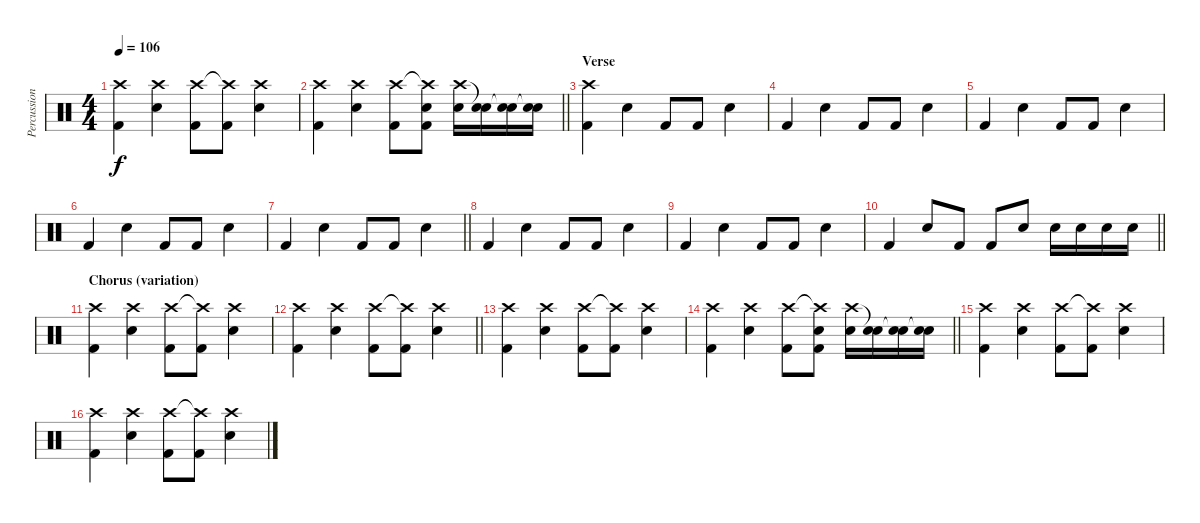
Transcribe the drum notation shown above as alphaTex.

\track ("Percussion" "Percussion") {instrument percussion}
\staff {score}
\articulation defaults
\ts (4 4)
\tempo 106
\clef neutral
\ks c
("Crash high (hit)" "Kick (hit) 2").4{dy f} ("Crash high (hit)" "Electric Snare (hit)").4 ("Crash high (hit)" "Kick (hit) 2").8 ("Crash high (hit)"{t} "Kick (hit) 2").8 ("Crash high (hit)" "Electric Snare (hit)").4 |
\barLineRight lightlight
("Crash high (hit)" "Kick (hit) 2").4 ("Crash high (hit)" "Electric Snare (hit)").4 ("Crash high (hit)" "Kick (hit) 2").8 ("Crash high (hit)"{t} "Electric Snare (hit)" "Kick (hit) 2").8 ("Crash high (hit)" "Electric Snare (hit)").16 ("Snare (hit)"{t} "Electric Snare (hit)").16 ("Snare (hit)"{t} "Electric Snare (hit)").16 ("Snare (hit)"{t} "Electric Snare (hit)").16 |
\section ("" "Verse")
("Crash high (hit)" "Kick (hit) 2").4 "Electric Snare (hit)".4 "Kick (hit) 2".8 "Kick (hit) 2".8 "Electric Snare (hit)".4 |
"Kick (hit) 2".4 "Electric Snare (hit)".4 "Kick (hit) 2".8 "Kick (hit) 2".8 "Electric Snare (hit)".4 |
"Kick (hit) 2".4 "Electric Snare (hit)".4 "Kick (hit) 2".8 "Kick (hit) 2".8 "Electric Snare (hit)".4 |
"Kick (hit) 2".4 "Electric Snare (hit)".4 "Kick (hit) 2".8 "Kick (hit) 2".8 "Electric Snare (hit)".4 |
\barLineRight lightlight "Kick (hit) 2".4 "Electric Snare (hit)".4 "Kick (hit) 2".8 "Kick (hit) 2".8 "Electric Snare (hit)".4
|
"Kick (hit) 2".4 "Electric Snare (hit)".4 "Kick (hit) 2".8 "Kick (hit) 2".8 "Electric Snare (hit)".4 |
"Kick (hit) 2".4 "Electric Snare (hit)".4 "Kick (hit) 2".8 "Kick (hit) 2".8 "Electric Snare (hit)".4 |
\barLineRight lightlight "Kick (hit) 2".4 "Electric Snare (hit)".8 "Kick (hit) 2".8 "Kick (hit) 2".8 "Electric Snare (hit)".8 "Electric Snare (hit)".16 "Electric Snare (hit)".16 "Electric Snare (hit)".16 "Electric Snare (hit)".16
|
\section ("" "Chorus (variation)")
("Crash high (hit)" "Kick (hit) 2").4 ("Crash high (hit)" "Electric Snare (hit)").4 ("Crash high (hit)" "Kick (hit) 2").8 ("Crash high (hit)"{t} "Kick (hit) 2").8 ("Crash high (hit)" "Electric Snare (hit)").4 |
\barLineRight lightlight
("Crash high (hit)" "Kick (hit) 2").4 ("Crash high (hit)" "Electric Snare (hit)").4 ("Crash high (hit)" "Kick (hit) 2").8 ("Crash high (hit)"{t} "Kick (hit) 2").8 ("Crash high (hit)" "Electric Snare (hit)").4 |
("Crash high (hit)" "Kick (hit) 2").4 ("Crash high (hit)" "Electric Snare (hit)").4 ("Crash high (hit)" "Kick (hit) 2").8 ("Crash high (hit)"{t} "Kick (hit) 2").8 ("Crash high (hit)" "Electric Snare (hit)").4 |
\barLineRight lightlight
("Crash high (hit)" "Kick (hit) 2").4 ("Crash high (hit)" "Electric Snare (hit)").4 ("Crash high (hit)" "Kick (hit) 2").8 ("Crash high (hit)"{t} "Electric Snare (hit)" "Kick (hit) 2").8 ("Crash high (hit)" "Electric Snare (hit)").16 ("Snare (hit)"{t} "Electric Snare (hit)").16 ("Snare (hit)"{t} "Electric Snare (hit)").16 ("Snare (hit)"{t} "Electric Snare (hit)").16 |
("Crash high (hit)" "Kick (hit) 2").4 ("Crash high (hit)" "Electric Snare (hit)").4 ("Crash high (hit)" "Kick (hit) 2").8 ("Crash high (hit)"{t} "Kick (hit) 2").8 ("Crash high (hit)" "Electric Snare (hit)").4 |
("Crash high (hit)" "Kick (hit) 2").4 ("Crash high (hit)" "Electric Snare (hit)").4 ("Crash high (hit)" "Kick (hit) 2").8 ("Crash high (hit)"{t} "Kick (hit) 2").8 ("Crash high (hit)" "Electric Snare (hit)").4
